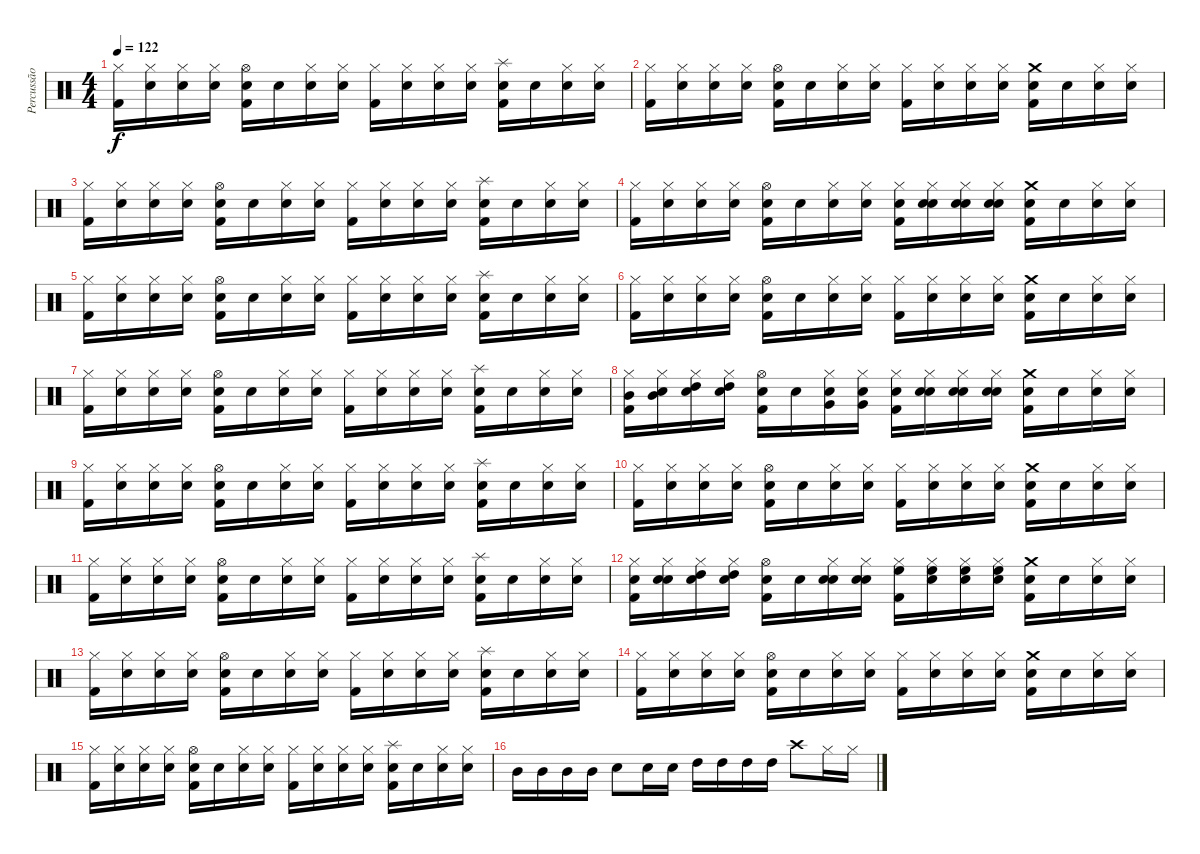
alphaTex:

\track ("Percussão" "Percussão") {instrument percussion}
\staff {score}
\articulation defaults
\ts (4 4)
\tempo 122
\clef neutral
\ks c
("Kick (hit) 2" "Hi-Hat (closed)").16{dy f} ("Snare (hit)" "Hi-Hat (closed)").16 ("Snare (hit)" "Hi-Hat (closed)").16 ("Snare (hit)" "Hi-Hat (closed)").16 ("Kick (hit) 2" "Electric Snare (hit)" "Hi-Hat (open)").16 "Snare (hit)".16 ("Snare (hit)" "Hi-Hat (closed)").16 ("Snare (hit)" "Hi-Hat (closed)").16 ("Kick (hit) 2" "Hi-Hat (closed)").16 ("Snare (hit)" "Hi-Hat (closed)").16 ("Snare (hit)" "Hi-Hat (closed)").16 ("Snare (hit)" "Hi-Hat (closed)").16 ("Kick (hit) 2" "Electric Snare (hit)" "Splash (hit)").16 "Snare (hit)".16 ("Snare (hit)" "Hi-Hat (closed)").16 ("Snare (hit)" "Hi-Hat (closed)").16 |
("Kick (hit) 2" "Hi-Hat (closed)").16 ("Snare (hit)" "Hi-Hat (closed)").16 ("Snare (hit)" "Hi-Hat (closed)").16 ("Snare (hit)" "Hi-Hat (closed)").16 ("Kick (hit) 2" "Electric Snare (hit)" "Hi-Hat (open)").16 "Snare (hit)".16 ("Snare (hit)" "Hi-Hat (closed)").16 ("Snare (hit)" "Hi-Hat (closed)").16 ("Kick (hit) 2" "Hi-Hat (closed)").16 ("Snare (hit)" "Hi-Hat (closed)").16 ("Snare (hit)" "Hi-Hat (closed)").16 ("Snare (hit)" "Hi-Hat (closed)").16 ("Kick (hit) 2" "Snare (hit) 2" "Crash medium (hit)").16 "Snare (hit)".16 ("Snare (hit)" "Hi-Hat (closed)").16 ("Snare (hit)" "Hi-Hat (closed)").16 |
("Kick (hit) 2" "Hi-Hat (closed)").16 ("Snare (hit)" "Hi-Hat (closed)").16 ("Snare (hit)" "Hi-Hat (closed)").16 ("Snare (hit)" "Hi-Hat (closed)").16 ("Kick (hit) 2" "Electric Snare (hit)" "Hi-Hat (open)").16 "Snare (hit)".16 ("Snare (hit)" "Hi-Hat (closed)").16 ("Snare (hit)" "Hi-Hat (closed)").16 ("Kick (hit) 2" "Hi-Hat (closed)").16 ("Snare (hit)" "Hi-Hat (closed)").16 ("Snare (hit)" "Hi-Hat (closed)").16 ("Snare (hit)" "Hi-Hat (closed)").16 ("Kick (hit) 2" "Electric Snare (hit)" "Splash (hit)").16 "Snare (hit)".16 ("Snare (hit)" "Hi-Hat (closed)").16 ("Snare (hit)" "Hi-Hat (closed)").16 |
("Kick (hit) 2" "Hi-Hat (closed)").16 ("Snare (hit)" "Hi-Hat (closed)").16 ("Snare (hit)" "Hi-Hat (closed)").16 ("Snare (hit)" "Hi-Hat (closed)").16 ("Kick (hit) 2" "Electric Snare (hit)" "Hi-Hat (open)").16 "Snare (hit)".16 ("Snare (hit)" "Hi-Hat (closed)").16 ("Snare (hit)" "Hi-Hat (closed)").16 ("Kick (hit) 2" "Electric Snare (hit)" "Hi-Hat (closed)").16 ("Snare (hit)" "Electric Snare (hit)" "Hi-Hat (closed)").16 ("Snare (hit)" "Electric Snare (hit)" "Hi-Hat (closed)").16 ("Snare (hit)" "Electric Snare (hit)" "Hi-Hat (closed)").16 ("Kick (hit) 2" "Snare (hit) 2" "Crash medium (hit)").16 "Snare (hit)".16 ("Snare (hit)" "Hi-Hat (closed)").16 ("Snare (hit)" "Hi-Hat (closed)").16 |
("Kick (hit) 2" "Hi-Hat (closed)").16 ("Snare (hit)" "Hi-Hat (closed)").16 ("Snare (hit)" "Hi-Hat (closed)").16 ("Snare (hit)" "Hi-Hat (closed)").16 ("Kick (hit) 2" "Electric Snare (hit)" "Hi-Hat (open)").16 "Snare (hit)".16 ("Snare (hit)" "Hi-Hat (closed)").16 ("Snare (hit)" "Hi-Hat (closed)").16 ("Kick (hit) 2" "Hi-Hat (closed)").16 ("Snare (hit)" "Hi-Hat (closed)").16 ("Snare (hit)" "Hi-Hat (closed)").16 ("Snare (hit)" "Hi-Hat (closed)").16 ("Kick (hit) 2" "Electric Snare (hit)" "Splash (hit)").16 "Snare (hit)".16 ("Snare (hit)" "Hi-Hat (closed)").16 ("Snare (hit)" "Hi-Hat (closed)").16 |
("Kick (hit) 2" "Hi-Hat (closed)").16 ("Snare (hit)" "Hi-Hat (closed)").16 ("Snare (hit)" "Hi-Hat (closed)").16 ("Snare (hit)" "Hi-Hat (closed)").16 ("Kick (hit) 2" "Electric Snare (hit)" "Hi-Hat (open)").16 "Snare (hit)".16 ("Snare (hit)" "Hi-Hat (closed)").16 ("Snare (hit)" "Hi-Hat (closed)").16 ("Kick (hit) 2" "Hi-Hat (closed)").16 ("Snare (hit)" "Hi-Hat (closed)").16 ("Snare (hit)" "Hi-Hat (closed)").16 ("Snare (hit)" "Hi-Hat (closed)").16 ("Kick (hit) 2" "Snare (hit) 2" "Crash medium (hit)").16 "Snare (hit)".16 ("Snare (hit)" "Hi-Hat (closed)").16 ("Snare (hit)" "Hi-Hat (closed)").16 |
("Kick (hit) 2" "Hi-Hat (closed)").16 ("Snare (hit)" "Hi-Hat (closed)").16 ("Snare (hit)" "Hi-Hat (closed)").16 ("Snare (hit)" "Hi-Hat (closed)").16 ("Kick (hit) 2" "Electric Snare (hit)" "Hi-Hat (open)").16 "Snare (hit)".16 ("Snare (hit)" "Hi-Hat (closed)").16 ("Snare (hit)" "Hi-Hat (closed)").16 ("Kick (hit) 2" "Hi-Hat (closed)").16 ("Snare (hit)" "Hi-Hat (closed)").16 ("Snare (hit)" "Hi-Hat (closed)").16 ("Snare (hit)" "Hi-Hat (closed)").16 ("Kick (hit) 2" "Electric Snare (hit)" "Splash (hit)").16 "Snare (hit)".16 ("Snare (hit)" "Hi-Hat (closed)").16 ("Snare (hit)" "Hi-Hat (closed)").16 |
("Kick (hit) 2" "Mid Tom (hit)" "Hi-Hat (closed)").16 ("Snare (hit)" "Mid Tom (hit)" "Hi-Hat (closed)").16 ("Snare (hit)" "High Tom (hit)" "Hi-Hat (closed)").16 ("Snare (hit)" "High Tom (hit)" "Hi-Hat (closed)").16 ("Kick (hit) 2" "Electric Snare (hit)" "Hi-Hat (open)").16 "Snare (hit)".16 ("Snare (hit)" "Very Low Tom (hit)" "Hi-Hat (closed)").16 ("Snare (hit)" "Very Low Tom (hit)" "Hi-Hat (closed)").16 ("Kick (hit) 2" "Electric Snare (hit)" "Hi-Hat (closed)").16 ("Snare (hit)" "Electric Snare (hit)" "Hi-Hat (closed)").16 ("Snare (hit)" "Electric Snare (hit)" "Hi-Hat (closed)").16 ("Snare (hit)" "Electric Snare (hit)" "Hi-Hat (closed)").16 ("Kick (hit) 2" "Snare (hit) 2" "Crash medium (hit)").16 "Snare (hit)".16 ("Snare (hit)" "Hi-Hat (closed)").16 ("Snare (hit)" "Hi-Hat (closed)").16 |
("Kick (hit) 2" "Hi-Hat (closed)").16 ("Snare (hit)" "Hi-Hat (closed)").16 ("Snare (hit)" "Hi-Hat (closed)").16 ("Snare (hit)" "Hi-Hat (closed)").16 ("Kick (hit) 2" "Electric Snare (hit)" "Hi-Hat (open)").16 "Snare (hit)".16 ("Snare (hit)" "Hi-Hat (closed)").16 ("Snare (hit)" "Hi-Hat (closed)").16 ("Kick (hit) 2" "Hi-Hat (closed)").16 ("Snare (hit)" "Hi-Hat (closed)").16 ("Snare (hit)" "Hi-Hat (closed)").16 ("Snare (hit)" "Hi-Hat (closed)").16 ("Kick (hit) 2" "Electric Snare (hit)" "Splash (hit)").16 "Snare (hit)".16 ("Snare (hit)" "Hi-Hat (closed)").16 ("Snare (hit)" "Hi-Hat (closed)").16 |
("Kick (hit) 2" "Hi-Hat (closed)").16 ("Snare (hit)" "Hi-Hat (closed)").16 ("Snare (hit)" "Hi-Hat (closed)").16 ("Snare (hit)" "Hi-Hat (closed)").16 ("Kick (hit) 2" "Electric Snare (hit)" "Hi-Hat (open)").16 "Snare (hit)".16 ("Snare (hit)" "Hi-Hat (closed)").16 ("Snare (hit)" "Hi-Hat (closed)").16 ("Kick (hit) 2" "Hi-Hat (closed)").16 ("Snare (hit)" "Hi-Hat (closed)").16 ("Snare (hit)" "Hi-Hat (closed)").16 ("Snare (hit)" "Hi-Hat (closed)").16 ("Kick (hit) 2" "Snare (hit) 2" "Crash medium (hit)").16 "Snare (hit)".16 ("Snare (hit)" "Hi-Hat (closed)").16 ("Snare (hit)" "Hi-Hat (closed)").16 |
("Kick (hit) 2" "Hi-Hat (closed)").16 ("Snare (hit)" "Hi-Hat (closed)").16 ("Snare (hit)" "Hi-Hat (closed)").16 ("Snare (hit)" "Hi-Hat (closed)").16 ("Kick (hit) 2" "Electric Snare (hit)" "Hi-Hat (open)").16 "Snare (hit)".16 ("Snare (hit)" "Hi-Hat (closed)").16 ("Snare (hit)" "Hi-Hat (closed)").16 ("Kick (hit) 2" "Hi-Hat (closed)").16 ("Snare (hit)" "Hi-Hat (closed)").16 ("Snare (hit)" "Hi-Hat (closed)").16 ("Snare (hit)" "Hi-Hat (closed)").16 ("Kick (hit) 2" "Electric Snare (hit)" "Splash (hit)").16 "Snare (hit)".16 ("Snare (hit)" "Hi-Hat (closed)").16 ("Snare (hit)" "Hi-Hat (closed)").16 |
("Kick (hit) 2" "Snare (hit) 2" "Hi-Hat (closed)").16 ("Snare (hit)" "Snare (hit) 2" "Hi-Hat (closed)").16 ("Snare (hit)" "High Tom (hit)" "Hi-Hat (closed)").16 ("Snare (hit)" "High Tom (hit)" "Hi-Hat (closed)").16 ("Kick (hit) 2" "Electric Snare (hit)" "Hi-Hat (open)").16 "Snare (hit)".16 ("Snare (hit)" "Electric Snare (hit)" "Hi-Hat (closed)").16 ("Snare (hit)" "Electric Snare (hit)" "Hi-Hat (closed)").16 ("Kick (hit) 2" "High Floor Tom (hit)" "Hi-Hat (closed)").16 ("Snare (hit)" "High Floor Tom (hit)" "Hi-Hat (closed)").16 ("Snare (hit)" "High Floor Tom (hit)" "Hi-Hat (closed)").16 ("Snare (hit)" "High Floor Tom (hit)" "Hi-Hat (closed)").16 ("Kick (hit) 2" "Snare (hit) 2" "Crash medium (hit)").16 "Snare (hit)".16 ("Snare (hit)" "Hi-Hat (closed)").16 ("Snare (hit)" "Hi-Hat (closed)").16 |
("Kick (hit) 2" "Hi-Hat (closed)").16 ("Snare (hit)" "Hi-Hat (closed)").16 ("Snare (hit)" "Hi-Hat (closed)").16 ("Snare (hit)" "Hi-Hat (closed)").16 ("Kick (hit) 2" "Electric Snare (hit)" "Hi-Hat (open)").16 "Snare (hit)".16 ("Snare (hit)" "Hi-Hat (closed)").16 ("Snare (hit)" "Hi-Hat (closed)").16 ("Kick (hit) 2" "Hi-Hat (closed)").16 ("Snare (hit)" "Hi-Hat (closed)").16 ("Snare (hit)" "Hi-Hat (closed)").16 ("Snare (hit)" "Hi-Hat (closed)").16 ("Kick (hit) 2" "Electric Snare (hit)" "Splash (hit)").16 "Snare (hit)".16 ("Snare (hit)" "Hi-Hat (closed)").16 ("Snare (hit)" "Hi-Hat (closed)").16 |
("Kick (hit) 2" "Hi-Hat (closed)").16 ("Snare (hit)" "Hi-Hat (closed)").16 ("Snare (hit)" "Hi-Hat (closed)").16 ("Snare (hit)" "Hi-Hat (closed)").16 ("Kick (hit) 2" "Electric Snare (hit)" "Hi-Hat (open)").16 "Snare (hit)".16 ("Snare (hit)" "Hi-Hat (closed)").16 ("Snare (hit)" "Hi-Hat (closed)").16 ("Kick (hit) 2" "Hi-Hat (closed)").16 ("Snare (hit)" "Hi-Hat (closed)").16 ("Snare (hit)" "Hi-Hat (closed)").16 ("Snare (hit)" "Hi-Hat (closed)").16 ("Kick (hit) 2" "Snare (hit) 2" "Crash medium (hit)").16 "Snare (hit)".16 ("Snare (hit)" "Hi-Hat (closed)").16 ("Snare (hit)" "Hi-Hat (closed)").16 |
("Kick (hit) 2" "Hi-Hat (closed)").16 ("Snare (hit)" "Hi-Hat (closed)").16 ("Snare (hit)" "Hi-Hat (closed)").16 ("Snare (hit)" "Hi-Hat (closed)").16 ("Kick (hit) 2" "Electric Snare (hit)" "Hi-Hat (open)").16 "Snare (hit)".16 ("Snare (hit)" "Hi-Hat (closed)").16 ("Snare (hit)" "Hi-Hat (closed)").16 ("Kick (hit) 2" "Hi-Hat (closed)").16 ("Snare (hit)" "Hi-Hat (closed)").16 ("Snare (hit)" "Hi-Hat (closed)").16 ("Snare (hit)" "Hi-Hat (closed)").16 ("Kick (hit) 2" "Electric Snare (hit)" "Splash (hit)").16 "Snare (hit)".16 ("Snare (hit)" "Hi-Hat (closed)").16 ("Snare (hit)" "Hi-Hat (closed)").16 |
"Mid Tom (hit)".16 "Mid Tom (hit)".16 "Mid Tom (hit)".16 "Mid Tom (hit)".16 "Electric Snare (hit)".8 "Electric Snare (hit)".16 "Electric Snare (hit)".16 "High Tom (hit)".16 "High Tom (hit)".16 "High Tom (hit)".16 "High Tom (hit)".16 "Crash high (hit)".8 "Hi-Hat (closed)".16 "Hi-Hat (closed)".16
